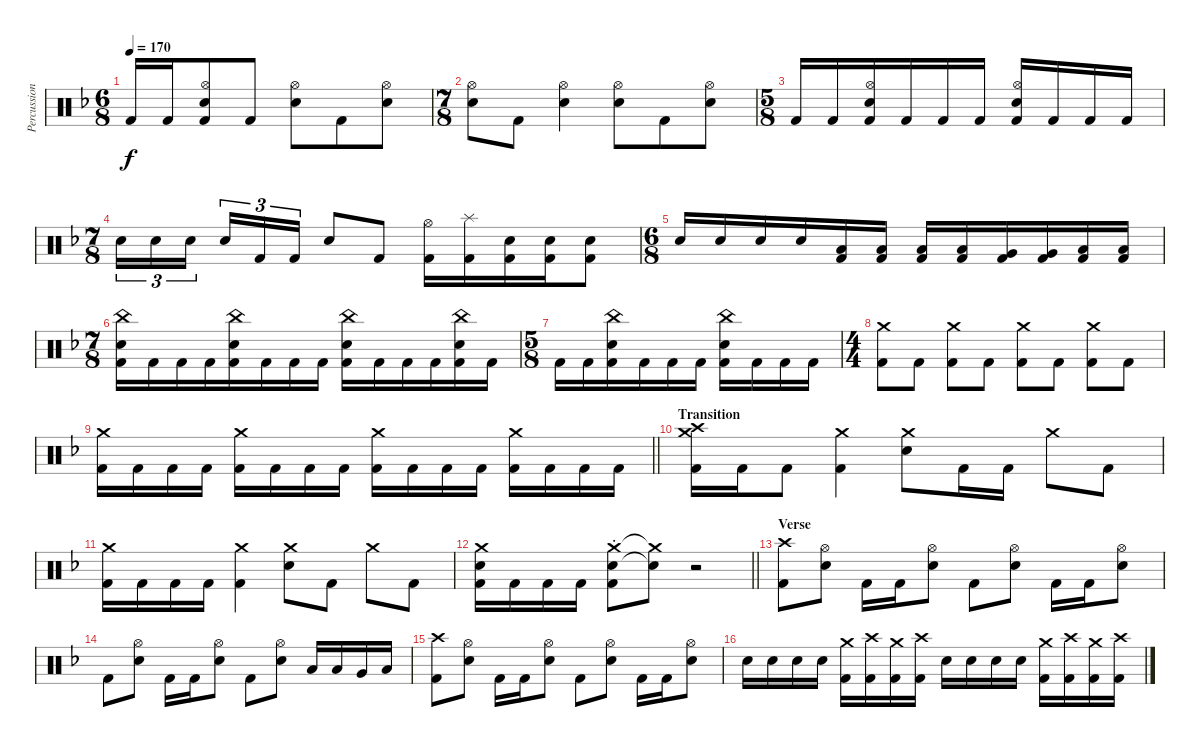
\track ("Percussion" "Percussion") {instrument percussion}
\staff {score}
\articulation defaults
\ts (6 8)
\tempo 170
\clef neutral
\ks dminor "Kick (hit) 2".16{dy f} "Kick (hit) 2".16
("Hi-Hat (open)" "Electric Snare (hit)" "Kick (hit) 2").8 "Kick (hit) 2".8 ("Hi-Hat (open)" "Electric Snare (hit)").8 "Kick (hit) 2".8 ("Hi-Hat (open)" "Electric Snare (hit)").8 |
\ts (7 8)
("Hi-Hat (open)" "Electric Snare (hit)").8 "Kick (hit) 2".8 ("Hi-Hat (open)" "Electric Snare (hit)").4 ("Hi-Hat (open)" "Electric Snare (hit)").8 "Kick (hit) 2".8 ("Hi-Hat (open)" "Electric Snare (hit)").8 |
\ts (5 8)
"Kick (hit) 2".16 "Kick (hit) 2".16 ("Hi-Hat (open)" "Electric Snare (hit)" "Kick (hit) 2").16 "Kick (hit) 2".16 "Kick (hit) 2".16 "Kick (hit) 2".16 ("Hi-Hat (open)" "Electric Snare (hit)" "Kick (hit) 2").16 "Kick (hit) 2".16 "Kick (hit) 2".16 "Kick (hit) 2".16 |
\ts (7 8)
"Electric Snare (hit)".16{tu (3 2)} "Electric Snare (hit)".16{tu (3 2)} "Electric Snare (hit)".16{tu (3 2)} "Electric Snare (hit)".16{tu (3 2)} "Kick (hit) 2".16{tu (3 2)} "Kick (hit) 2".16{tu (3 2)} "Electric Snare (hit)".8 "Kick (hit) 2".8 ("Hi-Hat (open)" "Kick (hit) 2").16 ("Splash (hit)" "Kick (hit) 2").16 ("Electric Snare (hit)" "Kick (hit) 2").16 ("Electric Snare (hit)" "Kick (hit) 2").16 ("Electric Snare (hit)" "Kick (hit) 2").8 |
\ts (6 8)
"Electric Snare (hit)".16 "Electric Snare (hit)".16 "Electric Snare (hit)".16 "Electric Snare (hit)".16 ("Low Tom (hit)" "Kick (hit) 2").16 ("Low Tom (hit)" "Kick (hit) 2").16 ("Low Tom (hit)" "Kick (hit) 2").16 ("Low Tom (hit)" "Kick (hit) 2").16 ("Very Low Tom (hit)" "Kick (hit) 2").16 ("Very Low Tom (hit)" "Kick (hit) 2").16 ("Low Floor Tom (hit)" "Kick (hit) 2").16 ("Low Floor Tom (hit)" "Kick (hit) 2").16 |
\ts (7 8)
("China (hit)" "Electric Snare (hit)" "Kick (hit) 2").16 "Kick (hit) 2".16 "Kick (hit) 2".16 "Kick (hit) 2".16 ("China (hit)" "Electric Snare (hit)" "Kick (hit) 2").16 "Kick (hit) 2".16 "Kick (hit) 2".16 "Kick (hit) 2".16 ("China (hit)" "Electric Snare (hit)" "Kick (hit) 2").16 "Kick (hit) 2".16 "Kick (hit) 2".16 "Kick (hit) 2".16 ("China (hit)" "Electric Snare (hit)" "Kick (hit) 2").16 "Kick (hit) 2".16 |
\ts (5 8)
"Kick (hit) 2".16 "Kick (hit) 2".16 ("China (hit)" "Electric Snare (hit)" "Kick (hit) 2").16 "Kick (hit) 2".16 "Kick (hit) 2".16 "Kick (hit) 2".16 ("China (hit)" "Electric Snare (hit)" "Kick (hit) 2").16 "Kick (hit) 2".16 "Kick (hit) 2".16 "Kick (hit) 2".16 |
\ts (4 4)
("Crash medium (hit)" "Kick (hit) 2").8 "Kick (hit) 2".8 ("Crash medium (hit)" "Kick (hit) 2").8 "Kick (hit) 2".8 ("Crash medium (hit)" "Kick (hit) 2").8 "Kick (hit) 2".8 ("Crash medium (hit)" "Kick (hit) 2").8 "Kick (hit) 2".8 |
\barLineRight lightlight
("Crash medium (hit)" "Kick (hit) 2").16 "Kick (hit) 2".16 "Kick (hit) 2".16 "Kick (hit) 2".16 ("Crash medium (hit)" "Kick (hit) 2").16 "Kick (hit) 2".16 "Kick (hit) 2".16 "Kick (hit) 2".16 ("Crash medium (hit)" "Kick (hit) 2").16 "Kick (hit) 2".16 "Kick (hit) 2".16 "Kick (hit) 2".16 ("Crash medium (hit)" "Kick (hit) 2").16 "Kick (hit) 2".16 "Kick (hit) 2".16 "Kick (hit) 2".16 |
\section ("" "Transition")
("Crash medium (hit)" "Crash high (hit)" "Kick (hit) 2").16 "Kick (hit) 2".16 "Kick (hit) 2".8 ("Crash medium (hit)" "Kick (hit) 2").4 ("Crash medium (hit)" "Electric Snare (hit)").8 "Kick (hit) 2".16 "Kick (hit) 2".16 "Crash medium (hit)".8 "Kick (hit) 2".8 |
("Crash medium (hit)" "Kick (hit) 2").16 "Kick (hit) 2".16 "Kick (hit) 2".16 "Kick (hit) 2".16 ("Crash medium (hit)" "Kick (hit) 2").4 ("Crash medium (hit)" "Electric Snare (hit)").8 "Kick (hit) 2".8 "Crash medium (hit)".8 "Kick (hit) 2".8 |
\barLineRight lightlight
("Crash medium (hit)" "Electric Snare (hit)" "Kick (hit) 2").16 "Kick (hit) 2".16 "Kick (hit) 2".16 "Kick (hit) 2".16 ("Crash medium (hit)"{st} "Electric Snare (hit)" "Kick (hit) 2").8 ("Crash medium (hit)"{t} "Electric Snare (hit)"{t}).8{volume 0} r.2 |
\section ("" "Verse")
("Crash high (hit)" "Kick (hit) 2").8{volume 14} ("Hi-Hat (open)" "Electric Snare (hit)").8 "Kick (hit) 2".16 "Kick (hit) 2".16 ("Hi-Hat (open)" "Electric Snare (hit)").8 "Kick (hit) 2".8 ("Hi-Hat (open)" "Electric Snare (hit)").8 "Kick (hit) 2".16 "Kick (hit) 2".16 ("Hi-Hat (open)" "Electric Snare (hit)").8 |
"Kick (hit) 2".8 ("Hi-Hat (open)" "Electric Snare (hit)").8 "Kick (hit) 2".16 "Kick (hit) 2".16 ("Hi-Hat (open)" "Electric Snare (hit)").8 "Kick (hit) 2".8 ("Hi-Hat (open)" "Electric Snare (hit)").8 "Low Tom (hit)".16 "Low Tom (hit)".16 "Very Low Tom (hit)".16 "Low Floor Tom (hit)".16 |
("Crash high (hit)" "Kick (hit) 2").8 ("Hi-Hat (open)" "Electric Snare (hit)").8 "Kick (hit) 2".16 "Kick (hit) 2".16 ("Hi-Hat (open)" "Electric Snare (hit)").8 "Kick (hit) 2".8 ("Hi-Hat (open)" "Electric Snare (hit)").8 "Kick (hit) 2".16 "Kick (hit) 2".16 ("Hi-Hat (open)" "Electric Snare (hit)").8 |
"Electric Snare (hit)".16 "Electric Snare (hit)".16 "Electric Snare (hit)".16 "Electric Snare (hit)".16 ("Crash medium (hit)" "Kick (hit) 2").16 ("Crash high (hit)" "Kick (hit) 2").16 ("Crash medium (hit)" "Kick (hit) 2").16 ("Crash high (hit)" "Kick (hit) 2").16 "Electric Snare (hit)".16 "Electric Snare (hit)".16 "Electric Snare (hit)".16 "Electric Snare (hit)".16 ("Crash medium (hit)" "Kick (hit) 2").16 ("Crash high (hit)" "Kick (hit) 2").16 ("Crash medium (hit)" "Kick (hit) 2").16 ("Crash high (hit)" "Kick (hit) 2").16
